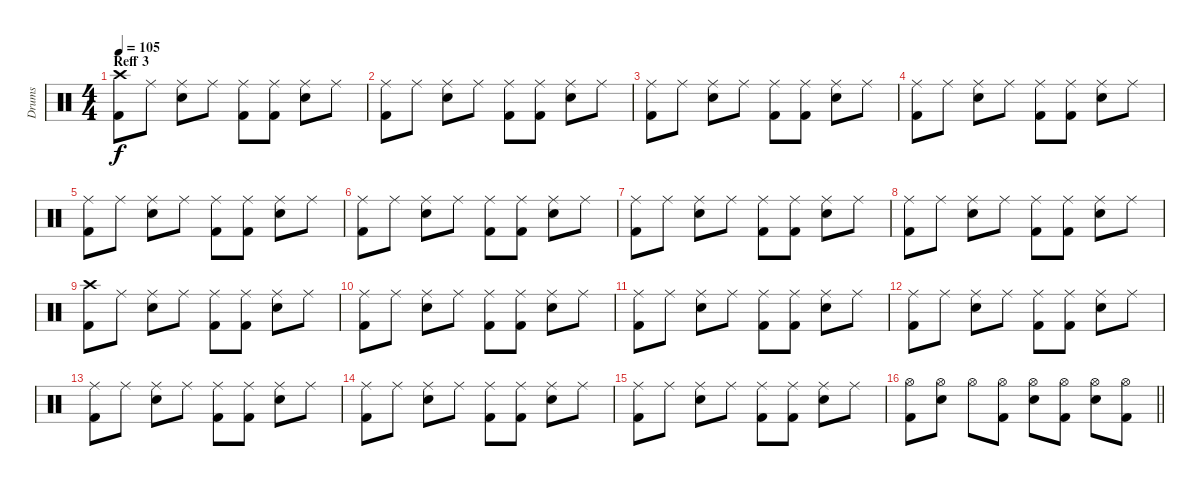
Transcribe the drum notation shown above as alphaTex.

\track ("Drums" "Drums") {instrument percussion}
\staff {score}
\articulation defaults
\ts (4 4)
\section ("" "Reff 3")
\tempo 105
\clef neutral
\ks c
("Crash high (hit)" "Kick (hit) 2").8{dy f} "Ride (middle)".8 ("Ride (middle)" "Electric Snare (hit)").8 "Ride (middle)".8 ("Ride (middle)" "Kick (hit) 2").8 ("Ride (middle)" "Kick (hit) 2").8 ("Ride (middle)" "Electric Snare (hit)").8 "Ride (middle)".8 |
("Ride (middle)" "Kick (hit) 2").8 "Ride (middle)".8 ("Ride (middle)" "Electric Snare (hit)").8 "Ride (middle)".8 ("Ride (middle)" "Kick (hit) 2").8 ("Ride (middle)" "Kick (hit) 2").8 ("Ride (middle)" "Electric Snare (hit)").8 "Ride (middle)".8 |
("Ride (middle)" "Kick (hit) 2").8 "Ride (middle)".8 ("Ride (middle)" "Electric Snare (hit)").8 "Ride (middle)".8 ("Ride (middle)" "Kick (hit) 2").8 ("Ride (middle)" "Kick (hit) 2").8 ("Ride (middle)" "Electric Snare (hit)").8 "Ride (middle)".8 |
("Ride (middle)" "Kick (hit) 2").8 "Ride (middle)".8 ("Ride (middle)" "Electric Snare (hit)").8 "Ride (middle)".8 ("Ride (middle)" "Kick (hit) 2").8 ("Ride (middle)" "Kick (hit) 2").8 ("Ride (middle)" "Electric Snare (hit)").8 "Ride (middle)".8 |
("Ride (middle)" "Kick (hit) 2").8 "Ride (middle)".8 ("Ride (middle)" "Electric Snare (hit)").8 "Ride (middle)".8 ("Ride (middle)" "Kick (hit) 2").8 ("Ride (middle)" "Kick (hit) 2").8 ("Ride (middle)" "Electric Snare (hit)").8 "Ride (middle)".8 |
("Ride (middle)" "Kick (hit) 2").8 "Ride (middle)".8 ("Ride (middle)" "Electric Snare (hit)").8 "Ride (middle)".8 ("Ride (middle)" "Kick (hit) 2").8 ("Ride (middle)" "Kick (hit) 2").8 ("Ride (middle)" "Electric Snare (hit)").8 "Ride (middle)".8 |
("Ride (middle)" "Kick (hit) 2").8 "Ride (middle)".8 ("Ride (middle)" "Electric Snare (hit)").8 "Ride (middle)".8 ("Ride (middle)" "Kick (hit) 2").8 ("Ride (middle)" "Kick (hit) 2").8 ("Ride (middle)" "Electric Snare (hit)").8 "Ride (middle)".8 |
("Ride (middle)" "Kick (hit) 2").8 "Ride (middle)".8 ("Ride (middle)" "Electric Snare (hit)").8 "Ride (middle)".8 ("Ride (middle)" "Kick (hit) 2").8 ("Ride (middle)" "Kick (hit) 2").8 ("Ride (middle)" "Electric Snare (hit)").8 "Ride (middle)".8 |
("Crash high (hit)" "Kick (hit) 2").8 "Ride (middle)".8 ("Ride (middle)" "Electric Snare (hit)").8 "Ride (middle)".8 ("Ride (middle)" "Kick (hit) 2").8 ("Ride (middle)" "Kick (hit) 2").8 ("Ride (middle)" "Electric Snare (hit)").8 "Ride (middle)".8 |
("Ride (middle)" "Kick (hit) 2").8 "Ride (middle)".8 ("Ride (middle)" "Electric Snare (hit)").8 "Ride (middle)".8 ("Ride (middle)" "Kick (hit) 2").8 ("Ride (middle)" "Kick (hit) 2").8 ("Ride (middle)" "Electric Snare (hit)").8 "Ride (middle)".8 |
("Ride (middle)" "Kick (hit) 2").8 "Ride (middle)".8 ("Ride (middle)" "Electric Snare (hit)").8 "Ride (middle)".8 ("Ride (middle)" "Kick (hit) 2").8 ("Ride (middle)" "Kick (hit) 2").8 ("Ride (middle)" "Electric Snare (hit)").8 "Ride (middle)".8 |
("Ride (middle)" "Kick (hit) 2").8 "Ride (middle)".8 ("Ride (middle)" "Electric Snare (hit)").8 "Ride (middle)".8 ("Ride (middle)" "Kick (hit) 2").8 ("Ride (middle)" "Kick (hit) 2").8 ("Ride (middle)" "Electric Snare (hit)").8 "Ride (middle)".8 |
("Ride (middle)" "Kick (hit) 2").8 "Ride (middle)".8 ("Ride (middle)" "Electric Snare (hit)").8 "Ride (middle)".8 ("Ride (middle)" "Kick (hit) 2").8 ("Ride (middle)" "Kick (hit) 2").8 ("Ride (middle)" "Electric Snare (hit)").8 "Ride (middle)".8 |
("Ride (middle)" "Kick (hit) 2").8 "Ride (middle)".8 ("Ride (middle)" "Electric Snare (hit)").8 "Ride (middle)".8 ("Ride (middle)" "Kick (hit) 2").8 ("Ride (middle)" "Kick (hit) 2").8 ("Ride (middle)" "Electric Snare (hit)").8 "Ride (middle)".8 |
("Ride (middle)" "Kick (hit) 2").8 "Ride (middle)".8 ("Ride (middle)" "Electric Snare (hit)").8 "Ride (middle)".8 ("Ride (middle)" "Kick (hit) 2").8 ("Ride (middle)" "Kick (hit) 2").8 ("Ride (middle)" "Electric Snare (hit)").8 "Ride (middle)".8 |
\barLineRight lightlight
("Hi-Hat (open)" "Kick (hit) 2").8 ("Hi-Hat (open)" "Electric Snare (hit)").8 "Hi-Hat (open)".8 ("Hi-Hat (open)" "Kick (hit) 2").8 ("Hi-Hat (open)" "Electric Snare (hit)").8 ("Hi-Hat (open)" "Kick (hit) 2").8 ("Hi-Hat (open)" "Electric Snare (hit)").8 ("Hi-Hat (open)" "Kick (hit) 2").8
